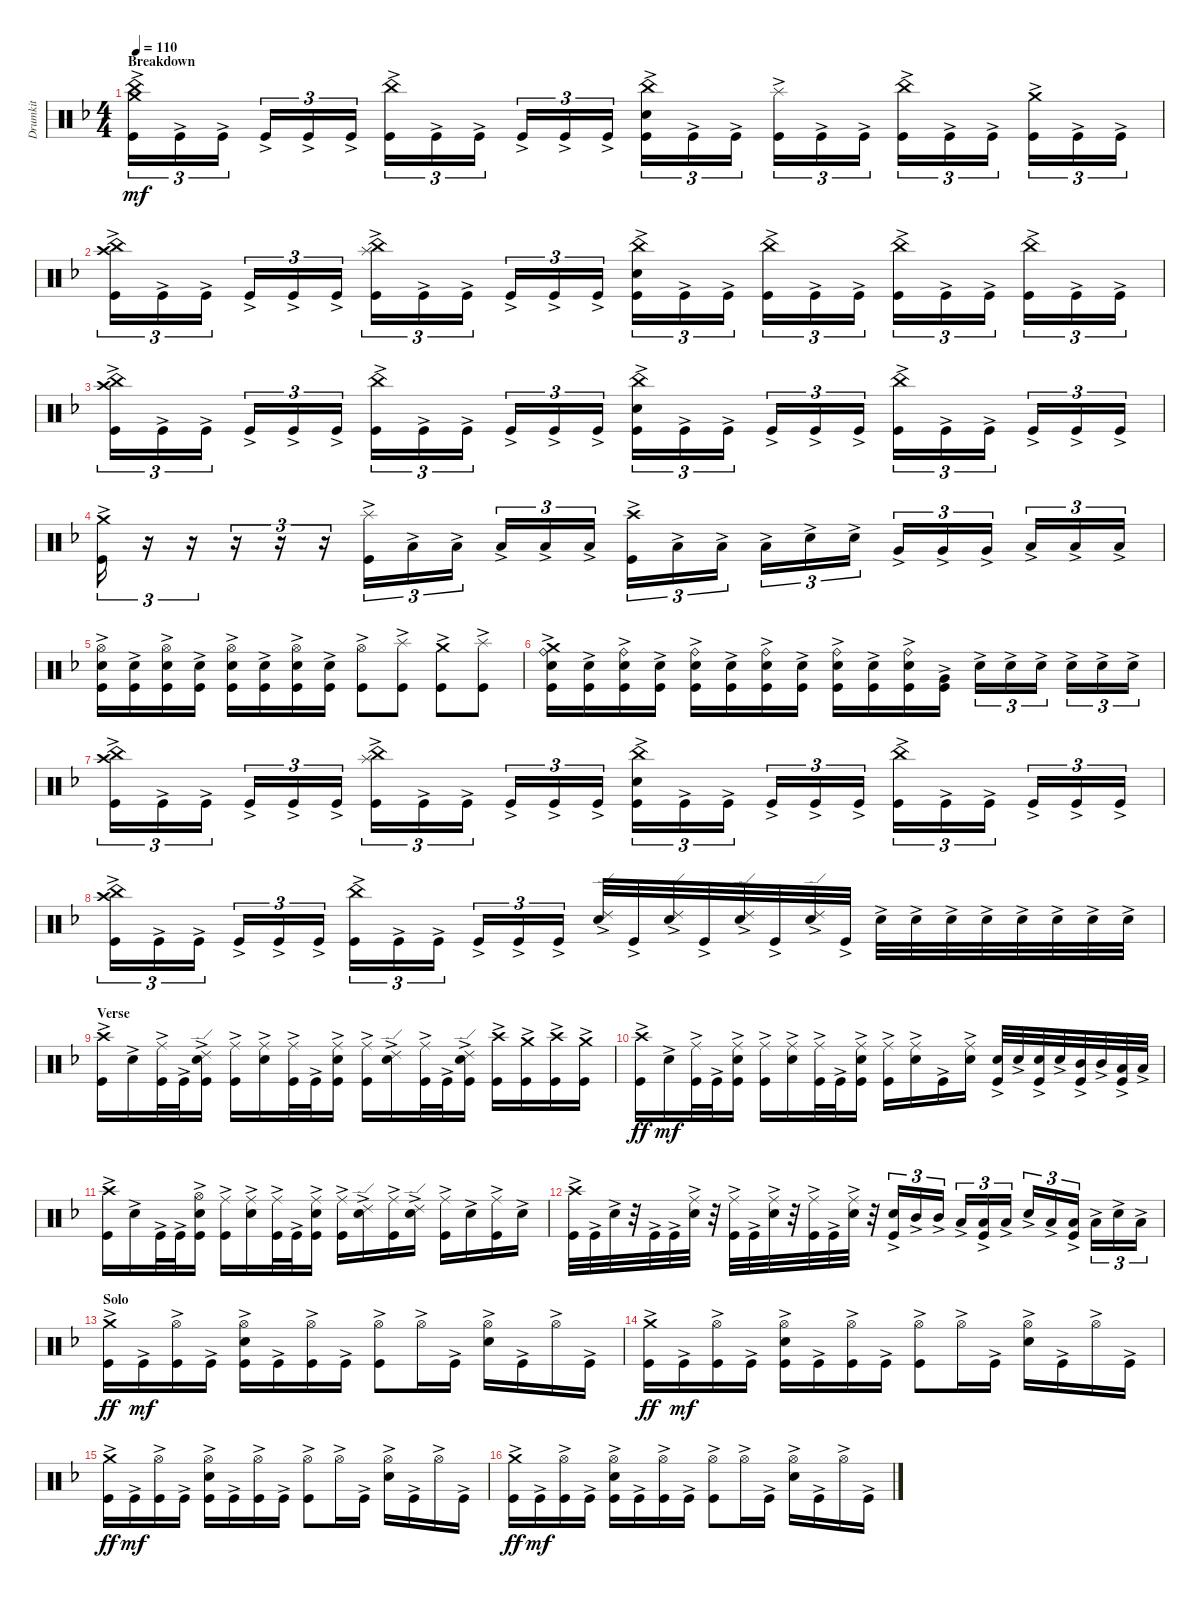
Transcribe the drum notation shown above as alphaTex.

\track ("Drumkit" "Drumkit") {instrument percussion}
\staff {score}
\articulation defaults
\ts (4 4)
\section ("" "Breakdown")
\tempo 110
\clef neutral
\ks dminor
("China (hit)"{ac} "Crash medium (hit)"{ac} "Kick (hit)"{ac}).16{tu (3 2) dy mf} "Kick (hit)"{ac}.16{tu (3 2)} "Kick (hit)"{ac}.16{tu (3 2)} "Kick (hit)"{ac}.16{tu (3 2)} "Kick (hit)"{ac}.16{tu (3 2)} "Kick (hit)"{ac}.16{tu (3 2)} ("China (hit)"{ac} "Kick (hit)"{ac}).16{tu (3 2)} "Kick (hit)"{ac}.16{tu (3 2)} "Kick (hit)"{ac}.16{tu (3 2)} "Kick (hit)"{ac}.16{tu (3 2)} "Kick (hit)"{ac}.16{tu (3 2)} "Kick (hit)"{ac}.16{tu (3 2)} ("China (hit)"{ac} "Snare (hit) 2"{ac} "Kick (hit)"{ac}).16{tu (3 2)} "Kick (hit)"{ac}.16{tu (3 2)} "Kick (hit)"{ac}.16{tu (3 2)} ("Splash (hit)"{ac} "Kick (hit)"{ac}).16{tu (3 2)} "Kick (hit)"{ac}.16{tu (3 2)} "Kick (hit)"{ac}.16{tu (3 2)} ("China (hit)"{ac} "Kick (hit)"{ac}).16{tu (3 2)} "Kick (hit)"{ac}.16{tu (3 2)} "Kick (hit)"{ac}.16{tu (3 2)} ("Crash medium (hit)"{ac} "Kick (hit)"{ac}).16{tu (3 2)} "Kick (hit)"{ac}.16{tu (3 2)} "Kick (hit)"{ac}.16{tu (3 2)} |
("China (hit)"{ac} "Crash high (hit)"{ac} "Kick (hit)"{ac}).16{tu (3 2)} "Kick (hit)"{ac}.16{tu (3 2)} "Kick (hit)"{ac}.16{tu (3 2)} "Kick (hit)"{ac}.16{tu (3 2)} "Kick (hit)"{ac}.16{tu (3 2)} "Kick (hit)"{ac}.16{tu (3 2)} ("China (hit)"{ac} "Splash (hit)"{ac} "Kick (hit)"{ac}).16{tu (3 2)} "Kick (hit)"{ac}.16{tu (3 2)} "Kick (hit)"{ac}.16{tu (3 2)} "Kick (hit)"{ac}.16{tu (3 2)} "Kick (hit)"{ac}.16{tu (3 2)} "Kick (hit)"{ac}.16{tu (3 2)} ("China (hit)"{ac} "Snare (hit) 2"{ac} "Kick (hit)"{ac}).16{tu (3 2)} "Kick (hit)"{ac}.16{tu (3 2)} "Kick (hit)"{ac}.16{tu (3 2)} ("China (hit)"{ac} "Kick (hit)"{ac}).16{tu (3 2)} "Kick (hit)"{ac}.16{tu (3 2)} "Kick (hit)"{ac}.16{tu (3 2)} ("China (hit)"{ac} "Kick (hit)"{ac}).16{tu (3 2)} "Kick (hit)"{ac}.16{tu (3 2)} "Kick (hit)"{ac}.16{tu (3 2)} ("China (hit)"{ac} "Kick (hit)"{ac}).16{tu (3 2)} "Kick (hit)"{ac}.16{tu (3 2)} "Kick (hit)"{ac}.16{tu (3 2)} |
("China (hit)"{ac} "Crash high (hit)"{ac} "Kick (hit)"{ac}).16{tu (3 2)} "Kick (hit)"{ac}.16{tu (3 2)} "Kick (hit)"{ac}.16{tu (3 2)} "Kick (hit)"{ac}.16{tu (3 2)} "Kick (hit)"{ac}.16{tu (3 2)} "Kick (hit)"{ac}.16{tu (3 2)} ("China (hit)"{ac} "Kick (hit)"{ac}).16{tu (3 2)} "Kick (hit)"{ac}.16{tu (3 2)} "Kick (hit)"{ac}.16{tu (3 2)} "Kick (hit)"{ac}.16{tu (3 2)} "Kick (hit)"{ac}.16{tu (3 2)} "Kick (hit)"{ac}.16{tu (3 2)} ("China (hit)"{ac} "Snare (hit) 2"{ac} "Kick (hit)"{ac}).16{tu (3 2)} "Kick (hit)"{ac}.16{tu (3 2)} "Kick (hit)"{ac}.16{tu (3 2)} "Kick (hit)"{ac}.16{tu (3 2)} "Kick (hit)"{ac}.16{tu (3 2)} "Kick (hit)"{ac}.16{tu (3 2)} ("China (hit)"{ac} "Kick (hit)"{ac}).16{tu (3 2)} "Kick (hit)"{ac}.16{tu (3 2)} "Kick (hit)"{ac}.16{tu (3 2)} "Kick (hit)"{ac}.16{tu (3 2)} "Kick (hit)"{ac}.16{tu (3 2)} "Kick (hit)"{ac}.16{tu (3 2)} |
("Crash medium (hit)"{ac} "Kick (hit)"{ac}).16{tu (3 2)} r.16{tu (3 2)} r.16{tu (3 2)} r.16{tu (3 2)} r.16{tu (3 2)} r.16{tu (3 2)} ("Splash (hit)"{ac} "Kick (hit)"{ac}).16{tu (3 2)} "Low Tom (hit)"{ac}.16{tu (3 2)} "Low Tom (hit)"{ac}.16{tu (3 2)} "Low Tom (hit)"{ac}.16{tu (3 2)} "Low Tom (hit)"{ac}.16{tu (3 2)} "Low Tom (hit)"{ac}.16{tu (3 2)} ("Crash high (hit)"{ac} "Kick (hit)"{ac}).16{tu (3 2)} "Low Tom (hit)"{ac}.16{tu (3 2)} "Low Tom (hit)"{ac}.16{tu (3 2)} "Low Tom (hit)"{ac}.16{tu (3 2)} "Snare (hit) 2"{ac}.16{tu (3 2)} "Snare (hit) 2"{ac}.16{tu (3 2)} "Very Low Tom (hit)"{ac}.16{tu (3 2)} "Very Low Tom (hit)"{ac}.16{tu (3 2)} "Very Low Tom (hit)"{ac}.16{tu (3 2)} "Low Floor Tom (hit)"{ac}.16{tu (3 2)} "Low Floor Tom (hit)"{ac}.16{tu (3 2)} "Low Floor Tom (hit)"{ac}.16{tu (3 2)} |
("Hi-Hat (open)"{ac} "Snare (hit) 2"{ac} "Kick (hit)"{ac}).16 ("Snare (hit) 2"{ac} "Kick (hit)"{ac}).16 ("Hi-Hat (open)"{ac} "Snare (hit) 2"{ac} "Kick (hit)"{ac}).16 ("Snare (hit) 2"{ac} "Kick (hit)"{ac}).16 ("Hi-Hat (open)"{ac} "Snare (hit) 2"{ac} "Kick (hit)"{ac}).16 ("Snare (hit) 2"{ac} "Kick (hit)"{ac}).16 ("Hi-Hat (open)"{ac} "Snare (hit) 2"{ac} "Kick (hit)"{ac}).16 ("Snare (hit) 2"{ac} "Kick (hit)"{ac}).16 ("Hi-Hat (open)"{ac} "Kick (hit)"{ac}).8 ("Splash (hit)"{ac} "Kick (hit)"{ac}).8 ("Crash medium (hit)"{ac} "Kick (hit)"{ac}).8 ("Splash (hit)"{ac} "Kick (hit)"{ac}).8 |
("Crash medium (hit)"{ac} "Ride (bell)"{ac} "Snare (hit) 2"{ac} "Kick (hit)"{ac}).16 ("Snare (hit) 2"{ac} "Kick (hit)"{ac}).16 ("Ride (bell)"{ac} "Snare (hit) 2"{ac} "Kick (hit)"{ac}).16 ("Snare (hit) 2"{ac} "Kick (hit)"{ac}).16 ("Ride (bell)"{ac} "Snare (hit) 2"{ac} "Kick (hit)"{ac}).16 ("Snare (hit) 2"{ac} "Kick (hit)"{ac}).16 ("Ride (bell)"{ac} "Snare (hit) 2"{ac} "Kick (hit)"{ac}).16 ("Snare (hit) 2"{ac} "Kick (hit)"{ac}).16 ("Ride (bell)"{ac} "Snare (hit) 2"{ac} "Kick (hit)"{ac}).16 ("Snare (hit) 2"{ac} "Kick (hit)"{ac}).16 ("Ride (bell)"{ac} "Snare (hit) 2"{ac} "Kick (hit)"{ac}).16 ("Very Low Tom (hit)"{ac} "Kick (hit)"{ac}).16 "Snare (hit) 2"{ac}.16{tu (3 2)} "Snare (hit) 2"{ac}.16{tu (3 2)} "Snare (hit) 2"{ac}.16{tu (3 2)} "Snare (hit) 2"{ac}.16{tu (3 2)} "Snare (hit) 2"{ac}.16{tu (3 2)} "Snare (hit) 2"{ac}.16{tu (3 2)} |
("China (hit)"{ac} "Crash high (hit)"{ac} "Kick (hit)"{ac}).16{tu (3 2)} "Kick (hit)"{ac}.16{tu (3 2)} "Kick (hit)"{ac}.16{tu (3 2)} "Kick (hit)"{ac}.16{tu (3 2)} "Kick (hit)"{ac}.16{tu (3 2)} "Kick (hit)"{ac}.16{tu (3 2)} ("China (hit)"{ac} "Splash (hit)"{ac} "Kick (hit)"{ac}).16{tu (3 2)} "Kick (hit)"{ac}.16{tu (3 2)} "Kick (hit)"{ac}.16{tu (3 2)} "Kick (hit)"{ac}.16{tu (3 2)} "Kick (hit)"{ac}.16{tu (3 2)} "Kick (hit)"{ac}.16{tu (3 2)} ("China (hit)"{ac} "Snare (hit) 2"{ac} "Kick (hit)"{ac}).16{tu (3 2)} "Kick (hit)"{ac}.16{tu (3 2)} "Kick (hit)"{ac}.16{tu (3 2)} "Kick (hit)"{ac}.16{tu (3 2)} "Kick (hit)"{ac}.16{tu (3 2)} "Kick (hit)"{ac}.16{tu (3 2)} ("China (hit)"{ac} "Kick (hit)"{ac}).16{tu (3 2)} "Kick (hit)"{ac}.16{tu (3 2)} "Kick (hit)"{ac}.16{tu (3 2)} "Kick (hit)"{ac}.16{tu (3 2)} "Kick (hit)"{ac}.16{tu (3 2)} "Kick (hit)"{ac}.16{tu (3 2)} |
("China (hit)"{ac} "Crash high (hit)"{ac} "Kick (hit)"{ac}).16{tu (3 2)} "Kick (hit)"{ac}.16{tu (3 2)} "Kick (hit)"{ac}.16{tu (3 2)} "Kick (hit)"{ac}.16{tu (3 2)} "Kick (hit)"{ac}.16{tu (3 2)} "Kick (hit)"{ac}.16{tu (3 2)} ("China (hit)"{ac} "Kick (hit)"{ac}).16{tu (3 2)} "Kick (hit)"{ac}.16{tu (3 2)} "Kick (hit)"{ac}.16{tu (3 2)} "Kick (hit)"{ac}.16{tu (3 2)} "Kick (hit)"{ac}.16{tu (3 2)} "Kick (hit)"{ac}.16{tu (3 2)} ("Ride (edge) 2"{ac} "Snare (hit) 2"{ac}).32 "Kick (hit)"{ac}.32 ("Ride (edge) 2"{ac} "Snare (hit) 2"{ac}).32 "Kick (hit)"{ac}.32 ("Ride (edge) 2"{ac} "Snare (hit) 2"{ac}).32 "Kick (hit)"{ac}.32 ("Ride (edge) 2"{ac} "Snare (hit) 2"{ac}).32 "Kick (hit)"{ac}.32 "Snare (hit) 2"{ac}.32 "Snare (hit) 2"{ac}.32 "Snare (hit) 2"{ac}.32 "Snare (hit) 2"{ac}.32 "Snare (hit) 2"{ac}.32 "Snare (hit) 2"{ac}.32 "Snare (hit) 2"{ac}.32 "Snare (hit) 2"{ac}.32 |
\section ("" "Verse")
("Crash high (hit)"{ac} "Kick (hit)"{ac}).16 "Snare (hit) 2"{ac}.16 ("Ride (middle)"{ac} "Kick (hit)"{ac}).32 "Kick (hit)"{ac}.32 ("Ride (edge) 2"{ac} "Snare (hit) 2"{ac} "Kick (hit)"{ac}).16 ("Ride (middle)"{ac} "Kick (hit)"{ac}).16 ("Ride (middle)"{ac} "Snare (hit) 2"{ac}).16 ("Ride (middle)"{ac} "Kick (hit)"{ac}).32 "Kick (hit)"{ac}.32 ("Ride (middle)"{ac} "Snare (hit) 2"{ac} "Kick (hit)"{ac}).16 ("Ride (middle)"{ac} "Kick (hit)"{ac}).16 ("Ride (edge) 2"{ac} "Snare (hit) 2"{ac}).16 ("Ride (middle)"{ac} "Kick (hit)"{ac}).32 "Kick (hit)"{ac}.32 ("Ride (edge) 2"{ac} "Snare (hit) 2"{ac} "Kick (hit)"{ac}).16 ("Crash high (hit)"{ac} "Kick (hit)"{ac}).16 ("Crash medium (hit)"{ac} "Kick (hit)"{ac}).16 ("Crash high (hit)"{ac} "Kick (hit)"{ac}).16 ("Crash medium (hit)"{ac} "Kick (hit)"{ac}).16 |
("Crash high (hit)"{ac} "Kick (hit)"{ac}).16{dy ff} "Snare (hit) 2"{ac}.16{dy mf} ("Ride (middle)"{ac} "Kick (hit)"{ac}).32 "Kick (hit)"{ac}.32 ("Ride (middle)"{ac} "Snare (hit) 2"{ac} "Kick (hit)"{ac}).16 ("Ride (middle)"{ac} "Kick (hit)"{ac}).16 ("Ride (middle)"{ac} "Snare (hit) 2"{ac}).16 ("Ride (middle)"{ac} "Kick (hit)"{ac}).32 "Kick (hit)"{ac}.32 ("Ride (middle)"{ac} "Snare (hit) 2"{ac} "Kick (hit)"{ac}).16 ("Ride (middle)"{ac} "Kick (hit)"{ac}).16 ("Ride (middle)"{ac} "Snare (hit) 2"{ac}).16 "Kick (hit)"{ac}.16 ("Ride (middle)"{ac} "Snare (hit) 2"{ac}).16 ("Snare (hit) 2"{ac} "Kick (hit)"{ac}).32 "Snare (hit) 2"{ac}.32 ("Snare (hit) 2"{ac} "Kick (hit)"{ac}).32 "Snare (hit) 2"{ac}.32 ("Mid Tom (hit)"{ac} "Kick (hit)"{ac}).32 "Mid Tom (hit)"{ac}.32 ("Low Tom (hit)"{ac} "Kick (hit)"{ac}).32 "Low Tom (hit)"{ac}.32 |
("Crash high (hit)"{ac} "Kick (hit)"{ac}).16 "Snare (hit) 2"{ac}.16 "Kick (hit)"{ac}.32 "Kick (hit)"{ac}.32 ("Hi-Hat (open)"{ac} "Snare (hit) 2"{ac} "Kick (hit)"{ac}).16 ("Ride (middle)"{ac} "Kick (hit)"{ac}).16 ("Ride (middle)"{ac} "Snare (hit) 2"{ac}).16 ("Ride (middle)"{ac} "Kick (hit)"{ac}).32 "Kick (hit)"{ac}.32 ("Ride (middle)"{ac} "Snare (hit) 2"{ac} "Kick (hit)"{ac}).16 ("Ride (middle)"{ac} "Kick (hit)"{ac}).16 ("Ride (edge) 2"{ac} "Snare (hit) 2"{ac}).16 ("Ride (middle)"{ac} "Kick (hit)"{ac}).16 ("Ride (edge) 2"{ac} "Snare (hit) 2"{ac}).16 ("Ride (middle)"{ac} "Kick (hit)"{ac}).16 "Snare (hit) 2"{ac}.16 ("Ride (middle)"{ac} "Kick (hit)"{ac}).16 "Snare (hit) 2"{ac}.16 |
("Crash high (hit)"{ac} "Kick (hit)"{ac}).32 "Kick (hit)"{ac}.32 "Snare (hit) 2"{ac}.32 r.32 "Kick (hit)"{ac}.32 "Kick (hit)"{ac}.32 ("Ride (middle)"{ac} "Snare (hit) 2"{ac}).32 r.32 ("Ride (middle)"{ac} "Kick (hit)"{ac}).32 "Kick (hit)"{ac}.32 ("Ride (middle)"{ac} "Snare (hit) 2"{ac}).32 r.32 ("Ride (middle)"{ac} "Kick (hit)"{ac}).32 "Kick (hit)"{ac}.32 ("Ride (middle)"{ac} "Snare (hit) 2"{ac}).32 r.32 ("Snare (hit) 2"{ac} "Kick (hit)"{ac}).16{tu (3 2)} "Mid Tom (hit)"{ac}.16{tu (3 2)} "Mid Tom (hit)"{ac}.16{tu (3 2)} "Low Tom (hit)"{ac}.16{tu (3 2)} ("Low Tom (hit)"{ac} "Kick (hit)"{ac}).16{tu (3 2)} "Low Tom (hit)"{ac}.16{tu (3 2)} "Snare (hit) 2"{ac}.16{tu (3 2)} "Low Tom (hit)"{ac}.16{tu (3 2)} ("Low Tom (hit)"{ac} "Kick (hit)"{ac}).16{tu (3 2)} "Low Tom (hit)"{ac}.16{tu (3 2)} "Snare (hit) 2"{ac}.16{tu (3 2)} "Low Tom (hit)"{ac}.16{tu (3 2)} |
\section ("" "Solo")
("Crash medium (hit)"{ac} "Kick (hit)"{ac}).16{dy ff} "Kick (hit)"{ac}.16{dy mf} ("Hi-Hat (open)"{ac} "Kick (hit)"{ac}).16 "Kick (hit)"{ac}.16 ("Hi-Hat (open)"{ac} "Snare (hit) 2"{ac} "Kick (hit)"{ac}).16 "Kick (hit)"{ac}.16 ("Hi-Hat (open)"{ac} "Kick (hit)"{ac}).16 "Kick (hit)"{ac}.16 ("Hi-Hat (open)"{ac} "Kick (hit)"{ac}).8 "Hi-Hat (open)"{ac}.16 "Kick (hit)"{ac}.16 ("Hi-Hat (open)"{ac} "Snare (hit) 2"{ac}).16 "Kick (hit)"{ac}.16 "Hi-Hat (open)"{ac}.16 "Kick (hit)"{ac}.16 |
("Crash medium (hit)"{ac} "Kick (hit)"{ac}).16{dy ff} "Kick (hit)"{ac}.16{dy mf} ("Hi-Hat (open)"{ac} "Kick (hit)"{ac}).16 "Kick (hit)"{ac}.16 ("Hi-Hat (open)"{ac} "Snare (hit) 2"{ac} "Kick (hit)"{ac}).16 "Kick (hit)"{ac}.16 ("Hi-Hat (open)"{ac} "Kick (hit)"{ac}).16 "Kick (hit)"{ac}.16 ("Hi-Hat (open)"{ac} "Kick (hit)"{ac}).8 "Hi-Hat (open)"{ac}.16 "Kick (hit)"{ac}.16 ("Hi-Hat (open)"{ac} "Snare (hit) 2"{ac}).16 "Kick (hit)"{ac}.16 "Hi-Hat (open)"{ac}.16 "Kick (hit)"{ac}.16 |
("Crash medium (hit)"{ac} "Kick (hit)"{ac}).16{dy ff} "Kick (hit)"{ac}.16{dy mf} ("Hi-Hat (open)"{ac} "Kick (hit)"{ac}).16 "Kick (hit)"{ac}.16 ("Hi-Hat (open)"{ac} "Snare (hit) 2"{ac} "Kick (hit)"{ac}).16 "Kick (hit)"{ac}.16 ("Hi-Hat (open)"{ac} "Kick (hit)"{ac}).16 "Kick (hit)"{ac}.16 ("Hi-Hat (open)"{ac} "Kick (hit)"{ac}).8 "Hi-Hat (open)"{ac}.16 "Kick (hit)"{ac}.16 ("Hi-Hat (open)"{ac} "Snare (hit) 2"{ac}).16 "Kick (hit)"{ac}.16 "Hi-Hat (open)"{ac}.16 "Kick (hit)"{ac}.16 |
("Crash medium (hit)"{ac} "Kick (hit)"{ac}).16{dy ff} "Kick (hit)"{ac}.16{dy mf} ("Hi-Hat (open)"{ac} "Kick (hit)"{ac}).16 "Kick (hit)"{ac}.16 ("Hi-Hat (open)"{ac} "Snare (hit) 2"{ac} "Kick (hit)"{ac}).16 "Kick (hit)"{ac}.16 ("Hi-Hat (open)"{ac} "Kick (hit)"{ac}).16 "Kick (hit)"{ac}.16 ("Hi-Hat (open)"{ac} "Kick (hit)"{ac}).8 "Hi-Hat (open)"{ac}.16 "Kick (hit)"{ac}.16 ("Hi-Hat (open)"{ac} "Snare (hit) 2"{ac}).16 "Kick (hit)"{ac}.16 "Hi-Hat (open)"{ac}.16 "Kick (hit)"{ac}.16
